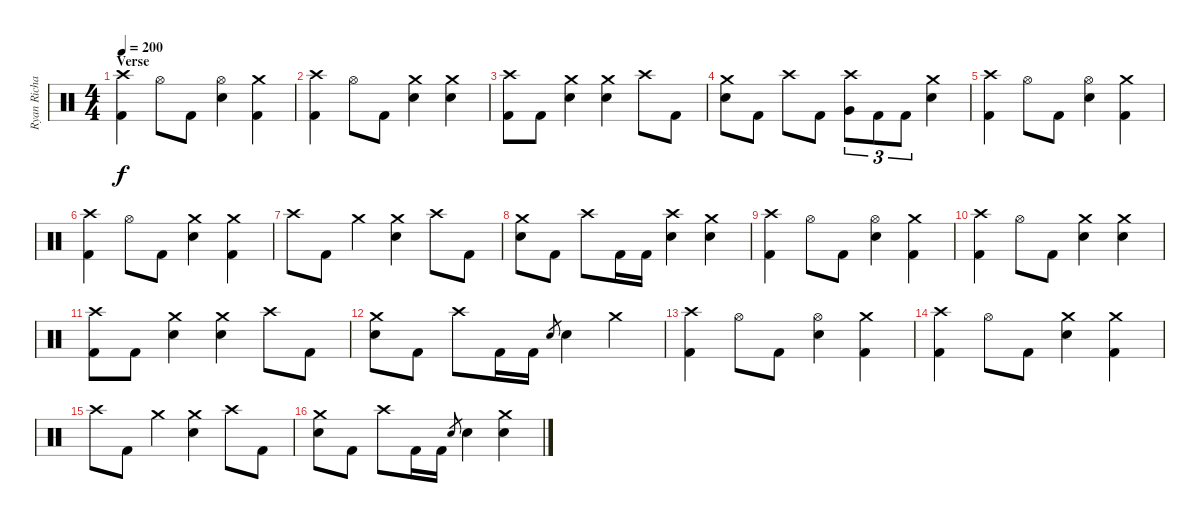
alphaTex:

\track ("Ryan Richards" "Ryan Richa") {instrument percussion}
\staff {score}
\articulation defaults
\ts (4 4)
\section ("" "Verse")
\tempo 200
\clef neutral
\ks c
("Crash high (hit)" "Kick (hit) 2").4{dy f} "Hi-Hat (open)".8 "Kick (hit) 2".8 ("Hi-Hat (open)" "Electric Snare (hit)").4 ("Crash medium (hit)" "Kick (hit) 2").4 |
("Crash high (hit)" "Kick (hit) 2").4 "Hi-Hat (open)".8 "Kick (hit) 2".8 ("Crash medium (hit)" "Electric Snare (hit)").4 ("Crash medium (hit)" "Electric Snare (hit)").4 |
("Crash high (hit)" "Kick (hit) 2").8 "Kick (hit) 2".8 ("Crash medium (hit)" "Electric Snare (hit)").4 ("Crash medium (hit)" "Electric Snare (hit)").4 "Crash high (hit)".8 "Kick (hit) 2".8 |
("Crash medium (hit)" "Electric Snare (hit)").8 "Kick (hit) 2".8 "Crash high (hit)".8 "Kick (hit) 2".8 ("Crash high (hit)" "Very Low Tom (hit)").8{tu (3 2)} "Kick (hit) 2".8{tu (3 2)} "Kick (hit) 2".8{tu (3 2)} ("Crash medium (hit)" "Electric Snare (hit)").4 |
("Crash high (hit)" "Kick (hit) 2").4 "Hi-Hat (open)".8 "Kick (hit) 2".8 ("Hi-Hat (open)" "Electric Snare (hit)").4 ("Crash medium (hit)" "Kick (hit) 2").4 |
("Crash high (hit)" "Kick (hit) 2").4 "Hi-Hat (open)".8 "Kick (hit) 2".8 ("Crash medium (hit)" "Electric Snare (hit)").4 ("Crash medium (hit)" "Kick (hit) 2").4 |
"Crash high (hit)".8 "Kick (hit) 2".8 "Crash medium (hit)".4 ("Crash medium (hit)" "Electric Snare (hit)").4 "Crash high (hit)".8 "Kick (hit) 2".8 |
("Crash medium (hit)" "Electric Snare (hit)").8 "Kick (hit) 2".8 "Crash high (hit)".8 "Kick (hit) 2".16 "Kick (hit) 2".16 ("Crash high (hit)" "Electric Snare (hit)").4 ("Crash medium (hit)" "Electric Snare (hit)").4 |
("Crash high (hit)" "Kick (hit) 2").4 "Hi-Hat (open)".8 "Kick (hit) 2".8 ("Hi-Hat (open)" "Electric Snare (hit)").4 ("Crash medium (hit)" "Kick (hit) 2").4 |
("Crash high (hit)" "Kick (hit) 2").4 "Hi-Hat (open)".8 "Kick (hit) 2".8 ("Crash medium (hit)" "Electric Snare (hit)").4 ("Crash medium (hit)" "Electric Snare (hit)").4 |
("Crash high (hit)" "Kick (hit) 2").8 "Kick (hit) 2".8 ("Crash medium (hit)" "Electric Snare (hit)").4 ("Crash medium (hit)" "Electric Snare (hit)").4 "Crash high (hit)".8 "Kick (hit) 2".8 |
("Crash medium (hit)" "Electric Snare (hit)").8 "Kick (hit) 2".8 "Crash high (hit)".8 "Kick (hit) 2".16 "Kick (hit) 2".16 "Electric Snare (hit)".8{gr} "Electric Snare (hit)".4 "Crash medium (hit)".4 |
("Crash high (hit)" "Kick (hit) 2").4 "Hi-Hat (open)".8 "Kick (hit) 2".8 ("Hi-Hat (open)" "Electric Snare (hit)").4 ("Crash medium (hit)" "Kick (hit) 2").4 |
("Crash high (hit)" "Kick (hit) 2").4 "Hi-Hat (open)".8 "Kick (hit) 2".8 ("Crash medium (hit)" "Electric Snare (hit)").4 ("Crash medium (hit)" "Kick (hit) 2").4 |
"Crash high (hit)".8 "Kick (hit) 2".8 "Crash medium (hit)".4 ("Crash medium (hit)" "Electric Snare (hit)").4 "Crash high (hit)".8 "Kick (hit) 2".8 |
("Crash medium (hit)" "Electric Snare (hit)").8 "Kick (hit) 2".8 "Crash high (hit)".8 "Kick (hit) 2".16 "Kick (hit) 2".16 "Electric Snare (hit)".8{gr} "Electric Snare (hit)".4 ("Crash medium (hit)" "Electric Snare (hit)").4
